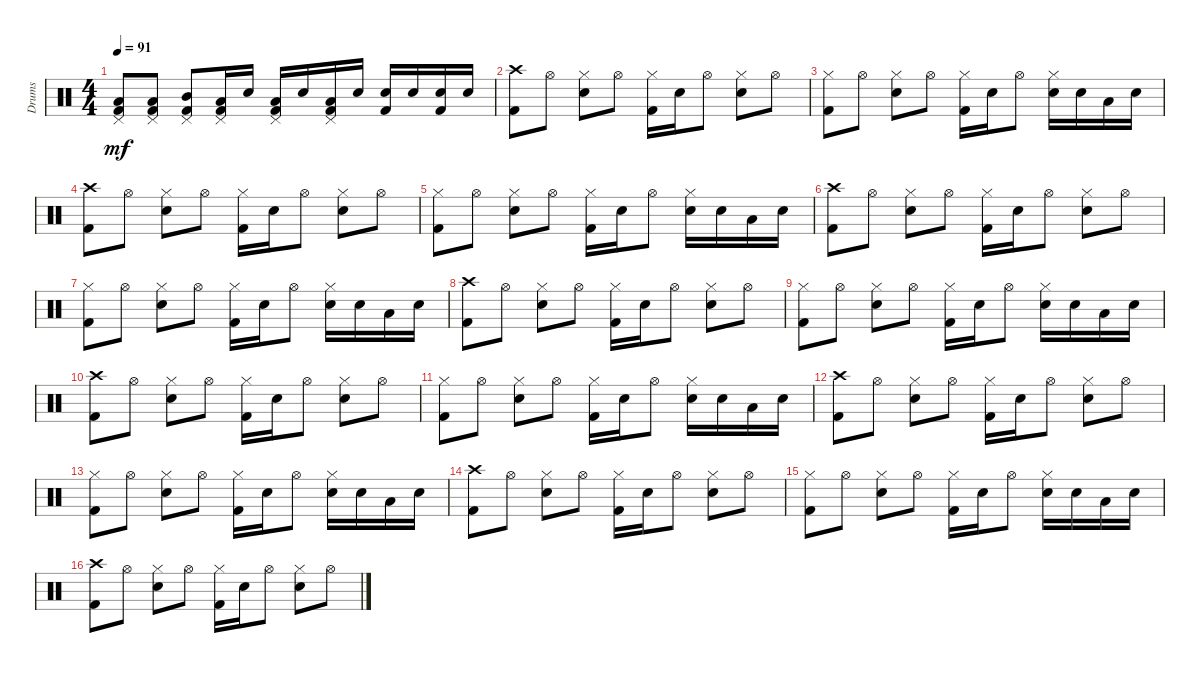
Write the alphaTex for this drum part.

\track ("Drums" "Drums") {instrument percussion}
\staff {score}
\articulation defaults
\ts (4 4)
\tempo 91
\clef neutral
\ks c
("Kick (hit) 2" "Low Floor Tom (hit)" "Pedal Hi-Hat (hit)").8{dy mf} ("Kick (hit) 2" "Low Floor Tom (hit)" "Pedal Hi-Hat (hit)").8 ("Kick (hit) 2" "Mid Tom (hit)" "Pedal Hi-Hat (hit)").8 ("Kick (hit) 2" "Low Floor Tom (hit)" "Pedal Hi-Hat (hit)").16 "Snare (hit) 2".16 ("Kick (hit) 2" "Low Floor Tom (hit)" "Pedal Hi-Hat (hit)").16 "Snare (hit) 2".16 ("Kick (hit) 2" "Low Floor Tom (hit)" "Pedal Hi-Hat (hit)").16 "Snare (hit) 2".16 ("Kick (hit) 2" "Snare (hit) 2").16 "Snare (hit) 2".16 ("Kick (hit) 2" "Snare (hit) 2").16 "Snare (hit) 2".16 |
("Crash high (hit)" "Kick (hit) 2").8 "Hi-Hat (open)".8 ("Hi-Hat (closed)" "Snare (hit) 2").8 "Hi-Hat (open)".8 ("Hi-Hat (closed)" "Kick (hit) 2").16 "Snare (hit) 2".16 "Hi-Hat (open)".8 ("Hi-Hat (closed)" "Snare (hit) 2").8 "Hi-Hat (open)".8 |
("Hi-Hat (closed)" "Kick (hit) 2").8 "Hi-Hat (open)".8 ("Hi-Hat (closed)" "Snare (hit) 2").8 "Hi-Hat (open)".8 ("Hi-Hat (closed)" "Kick (hit) 2").16 "Snare (hit) 2".16 "Hi-Hat (open)".8 ("Hi-Hat (closed)" "Snare (hit) 2").16 "Snare (hit) 2".16 "Low Tom (hit)".16 "Snare (hit) 2".16 |
("Crash high (hit)" "Kick (hit) 2").8 "Hi-Hat (open)".8 ("Hi-Hat (closed)" "Snare (hit) 2").8 "Hi-Hat (open)".8 ("Hi-Hat (closed)" "Kick (hit) 2").16 "Snare (hit) 2".16 "Hi-Hat (open)".8 ("Hi-Hat (closed)" "Snare (hit) 2").8 "Hi-Hat (open)".8 |
("Hi-Hat (closed)" "Kick (hit) 2").8 "Hi-Hat (open)".8 ("Hi-Hat (closed)" "Snare (hit) 2").8 "Hi-Hat (open)".8 ("Hi-Hat (closed)" "Kick (hit) 2").16 "Snare (hit) 2".16 "Hi-Hat (open)".8 ("Hi-Hat (closed)" "Snare (hit) 2").16 "Snare (hit) 2".16 "Low Tom (hit)".16 "Snare (hit) 2".16 |
("Crash high (hit)" "Kick (hit) 2").8 "Hi-Hat (open)".8 ("Hi-Hat (closed)" "Snare (hit) 2").8 "Hi-Hat (open)".8 ("Hi-Hat (closed)" "Kick (hit) 2").16 "Snare (hit) 2".16 "Hi-Hat (open)".8 ("Hi-Hat (closed)" "Snare (hit) 2").8 "Hi-Hat (open)".8 |
("Hi-Hat (closed)" "Kick (hit) 2").8 "Hi-Hat (open)".8 ("Hi-Hat (closed)" "Snare (hit) 2").8 "Hi-Hat (open)".8 ("Hi-Hat (closed)" "Kick (hit) 2").16 "Snare (hit) 2".16 "Hi-Hat (open)".8 ("Hi-Hat (closed)" "Snare (hit) 2").16 "Snare (hit) 2".16 "Low Tom (hit)".16 "Snare (hit) 2".16 |
("Crash high (hit)" "Kick (hit) 2").8 "Hi-Hat (open)".8 ("Hi-Hat (closed)" "Snare (hit) 2").8 "Hi-Hat (open)".8 ("Hi-Hat (closed)" "Kick (hit) 2").16 "Snare (hit) 2".16 "Hi-Hat (open)".8 ("Hi-Hat (closed)" "Snare (hit) 2").8 "Hi-Hat (open)".8 |
("Hi-Hat (closed)" "Kick (hit) 2").8 "Hi-Hat (open)".8 ("Hi-Hat (closed)" "Snare (hit) 2").8 "Hi-Hat (open)".8 ("Hi-Hat (closed)" "Kick (hit) 2").16 "Snare (hit) 2".16 "Hi-Hat (open)".8 ("Hi-Hat (closed)" "Snare (hit) 2").16 "Snare (hit) 2".16 "Low Tom (hit)".16 "Snare (hit) 2".16 |
("Crash high (hit)" "Kick (hit) 2").8 "Hi-Hat (open)".8 ("Hi-Hat (closed)" "Snare (hit) 2").8 "Hi-Hat (open)".8 ("Hi-Hat (closed)" "Kick (hit) 2").16 "Snare (hit) 2".16 "Hi-Hat (open)".8 ("Hi-Hat (closed)" "Snare (hit) 2").8 "Hi-Hat (open)".8 |
("Hi-Hat (closed)" "Kick (hit) 2").8 "Hi-Hat (open)".8 ("Hi-Hat (closed)" "Snare (hit) 2").8 "Hi-Hat (open)".8 ("Hi-Hat (closed)" "Kick (hit) 2").16 "Snare (hit) 2".16 "Hi-Hat (open)".8 ("Hi-Hat (closed)" "Snare (hit) 2").16 "Snare (hit) 2".16 "Low Tom (hit)".16 "Snare (hit) 2".16 |
("Crash high (hit)" "Kick (hit) 2").8 "Hi-Hat (open)".8 ("Hi-Hat (closed)" "Snare (hit) 2").8 "Hi-Hat (open)".8 ("Hi-Hat (closed)" "Kick (hit) 2").16 "Snare (hit) 2".16 "Hi-Hat (open)".8 ("Hi-Hat (closed)" "Snare (hit) 2").8 "Hi-Hat (open)".8 |
("Hi-Hat (closed)" "Kick (hit) 2").8 "Hi-Hat (open)".8 ("Hi-Hat (closed)" "Snare (hit) 2").8 "Hi-Hat (open)".8 ("Hi-Hat (closed)" "Kick (hit) 2").16 "Snare (hit) 2".16 "Hi-Hat (open)".8 ("Hi-Hat (closed)" "Snare (hit) 2").16 "Snare (hit) 2".16 "Low Tom (hit)".16 "Snare (hit) 2".16 |
("Crash high (hit)" "Kick (hit) 2").8 "Hi-Hat (open)".8 ("Hi-Hat (closed)" "Snare (hit) 2").8 "Hi-Hat (open)".8 ("Hi-Hat (closed)" "Kick (hit) 2").16 "Snare (hit) 2".16 "Hi-Hat (open)".8 ("Hi-Hat (closed)" "Snare (hit) 2").8 "Hi-Hat (open)".8 |
("Hi-Hat (closed)" "Kick (hit) 2").8 "Hi-Hat (open)".8 ("Hi-Hat (closed)" "Snare (hit) 2").8 "Hi-Hat (open)".8 ("Hi-Hat (closed)" "Kick (hit) 2").16 "Snare (hit) 2".16 "Hi-Hat (open)".8 ("Hi-Hat (closed)" "Snare (hit) 2").16 "Snare (hit) 2".16 "Low Tom (hit)".16 "Snare (hit) 2".16 |
("Crash high (hit)" "Kick (hit) 2").8 "Hi-Hat (open)".8 ("Hi-Hat (closed)" "Snare (hit) 2").8 "Hi-Hat (open)".8 ("Hi-Hat (closed)" "Kick (hit) 2").16 "Snare (hit) 2".16 "Hi-Hat (open)".8 ("Hi-Hat (closed)" "Snare (hit) 2").8 "Hi-Hat (open)".8
